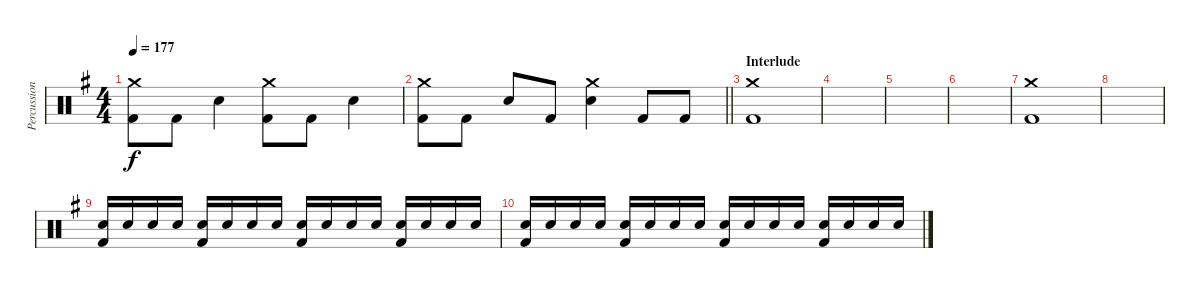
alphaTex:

\track ("Percussion" "Percussion") {instrument percussion}
\staff {score}
\articulation defaults
\ts (4 4)
\tempo 177
\clef neutral
\ks g
("Crash medium (hit)" "Kick (hit) 2").8{dy f} "Kick (hit) 2".8 "Electric Snare (hit)".4 ("Crash medium (hit)" "Kick (hit) 2").8 "Kick (hit) 2".8 "Electric Snare (hit)".4 |
\barLineRight lightlight
("Crash medium (hit)" "Kick (hit) 2").8 "Kick (hit) 2".8 "Electric Snare (hit)".8 "Kick (hit) 2".8 ("Crash medium (hit)" "Electric Snare (hit)").4 "Kick (hit) 2".8 "Kick (hit) 2".8 |
\section ("" "Interlude")
("Crash medium (hit)" "Kick (hit) 2").1 |
|
|
|
("Crash medium (hit)" "Kick (hit) 2").1 |
|
("Electric Snare (hit)" "Kick (hit) 2").16{volume 14} "Electric Snare (hit)".16 "Electric Snare (hit)".16 "Electric Snare (hit)".16 ("Electric Snare (hit)" "Kick (hit) 2").16 "Electric Snare (hit)".16 "Electric Snare (hit)".16 "Electric Snare (hit)".16 ("Electric Snare (hit)" "Kick (hit) 2").16 "Electric Snare (hit)".16 "Electric Snare (hit)".16 "Electric Snare (hit)".16 ("Electric Snare (hit)" "Kick (hit) 2").16 "Electric Snare (hit)".16 "Electric Snare (hit)".16 "Electric Snare (hit)".16 |
("Electric Snare (hit)" "Kick (hit) 2").16 "Electric Snare (hit)".16 "Electric Snare (hit)".16 "Electric Snare (hit)".16 ("Electric Snare (hit)" "Kick (hit) 2").16 "Electric Snare (hit)".16 "Electric Snare (hit)".16 "Electric Snare (hit)".16 ("Electric Snare (hit)" "Kick (hit) 2").16 "Electric Snare (hit)".16 "Electric Snare (hit)".16 "Electric Snare (hit)".16 ("Electric Snare (hit)" "Kick (hit) 2").16 "Electric Snare (hit)".16 "Electric Snare (hit)".16 "Electric Snare (hit)".16
